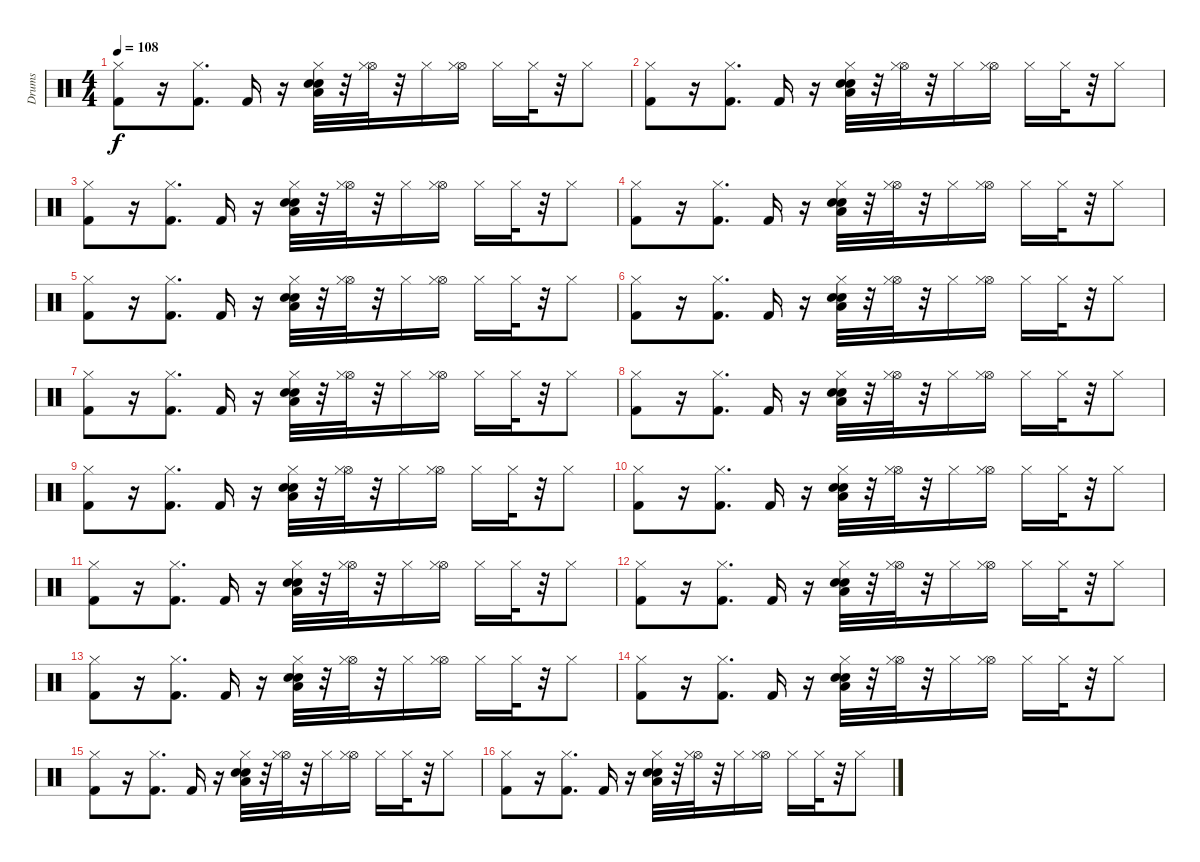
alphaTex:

\track ("Drums" "Drums") {instrument percussion}
\staff {score}
\articulation defaults
\ts (4 4)
\tempo 108
\clef neutral
\ks c
("Hi-Hat (closed)" "Kick (hit) 2").8{dy f} r.16 ("Kick (hit) 2" "Hi-Hat (closed)").8{d} "Kick (hit) 2".16 r.16 ("Low Floor Tom (hit)" "Electric Snare (hit)" "Snare (hit) 2" "Hi-Hat (closed)").32 r.32 ("Hi-Hat (open)" "Hi-Hat (closed)").32 r.32 "Hi-Hat (closed)".16 ("Hi-Hat (open)" "Hi-Hat (closed)").16 "Hi-Hat (closed)".16 "Hi-Hat (closed)".32 r.32 "Hi-Hat (closed)".8 |
("Hi-Hat (closed)" "Kick (hit) 2").8 r.16 ("Kick (hit) 2" "Hi-Hat (closed)").8{d} "Kick (hit) 2".16 r.16 ("Low Floor Tom (hit)" "Electric Snare (hit)" "Snare (hit) 2" "Hi-Hat (closed)").32 r.32 ("Hi-Hat (open)" "Hi-Hat (closed)").32 r.32 "Hi-Hat (closed)".16 ("Hi-Hat (open)" "Hi-Hat (closed)").16 "Hi-Hat (closed)".16 "Hi-Hat (closed)".32 r.32 "Hi-Hat (closed)".8 |
("Hi-Hat (closed)" "Kick (hit) 2").8 r.16 ("Kick (hit) 2" "Hi-Hat (closed)").8{d} "Kick (hit) 2".16 r.16 ("Low Floor Tom (hit)" "Electric Snare (hit)" "Snare (hit) 2" "Hi-Hat (closed)").32 r.32 ("Hi-Hat (open)" "Hi-Hat (closed)").32 r.32 "Hi-Hat (closed)".16 ("Hi-Hat (open)" "Hi-Hat (closed)").16 "Hi-Hat (closed)".16 "Hi-Hat (closed)".32 r.32 "Hi-Hat (closed)".8 |
("Hi-Hat (closed)" "Kick (hit) 2").8 r.16 ("Kick (hit) 2" "Hi-Hat (closed)").8{d} "Kick (hit) 2".16 r.16 ("Low Floor Tom (hit)" "Electric Snare (hit)" "Snare (hit) 2" "Hi-Hat (closed)").32 r.32 ("Hi-Hat (open)" "Hi-Hat (closed)").32 r.32 "Hi-Hat (closed)".16 ("Hi-Hat (open)" "Hi-Hat (closed)").16 "Hi-Hat (closed)".16 "Hi-Hat (closed)".32 r.32 "Hi-Hat (closed)".8 |
("Hi-Hat (closed)" "Kick (hit) 2").8 r.16 ("Kick (hit) 2" "Hi-Hat (closed)").8{d} "Kick (hit) 2".16 r.16 ("Low Floor Tom (hit)" "Electric Snare (hit)" "Snare (hit) 2" "Hi-Hat (closed)").32 r.32 ("Hi-Hat (open)" "Hi-Hat (closed)").32 r.32 "Hi-Hat (closed)".16 ("Hi-Hat (open)" "Hi-Hat (closed)").16 "Hi-Hat (closed)".16 "Hi-Hat (closed)".32 r.32 "Hi-Hat (closed)".8 |
("Hi-Hat (closed)" "Kick (hit) 2").8 r.16 ("Kick (hit) 2" "Hi-Hat (closed)").8{d} "Kick (hit) 2".16 r.16 ("Low Floor Tom (hit)" "Electric Snare (hit)" "Snare (hit) 2" "Hi-Hat (closed)").32 r.32 ("Hi-Hat (open)" "Hi-Hat (closed)").32 r.32 "Hi-Hat (closed)".16 ("Hi-Hat (open)" "Hi-Hat (closed)").16 "Hi-Hat (closed)".16 "Hi-Hat (closed)".32 r.32 "Hi-Hat (closed)".8 |
("Hi-Hat (closed)" "Kick (hit) 2").8 r.16 ("Kick (hit) 2" "Hi-Hat (closed)").8{d} "Kick (hit) 2".16 r.16 ("Low Floor Tom (hit)" "Electric Snare (hit)" "Snare (hit) 2" "Hi-Hat (closed)").32 r.32 ("Hi-Hat (open)" "Hi-Hat (closed)").32 r.32 "Hi-Hat (closed)".16 ("Hi-Hat (open)" "Hi-Hat (closed)").16 "Hi-Hat (closed)".16 "Hi-Hat (closed)".32 r.32 "Hi-Hat (closed)".8 |
("Hi-Hat (closed)" "Kick (hit) 2").8 r.16 ("Kick (hit) 2" "Hi-Hat (closed)").8{d} "Kick (hit) 2".16 r.16 ("Low Floor Tom (hit)" "Electric Snare (hit)" "Snare (hit) 2" "Hi-Hat (closed)").32 r.32 ("Hi-Hat (open)" "Hi-Hat (closed)").32 r.32 "Hi-Hat (closed)".16 ("Hi-Hat (open)" "Hi-Hat (closed)").16 "Hi-Hat (closed)".16 "Hi-Hat (closed)".32 r.32 "Hi-Hat (closed)".8 |
("Hi-Hat (closed)" "Kick (hit) 2").8 r.16 ("Kick (hit) 2" "Hi-Hat (closed)").8{d} "Kick (hit) 2".16 r.16 ("Low Floor Tom (hit)" "Electric Snare (hit)" "Snare (hit) 2" "Hi-Hat (closed)").32 r.32 ("Hi-Hat (open)" "Hi-Hat (closed)").32 r.32 "Hi-Hat (closed)".16 ("Hi-Hat (open)" "Hi-Hat (closed)").16 "Hi-Hat (closed)".16 "Hi-Hat (closed)".32 r.32 "Hi-Hat (closed)".8 |
("Hi-Hat (closed)" "Kick (hit) 2").8 r.16 ("Kick (hit) 2" "Hi-Hat (closed)").8{d} "Kick (hit) 2".16 r.16 ("Low Floor Tom (hit)" "Electric Snare (hit)" "Snare (hit) 2" "Hi-Hat (closed)").32 r.32 ("Hi-Hat (open)" "Hi-Hat (closed)").32 r.32 "Hi-Hat (closed)".16 ("Hi-Hat (open)" "Hi-Hat (closed)").16 "Hi-Hat (closed)".16 "Hi-Hat (closed)".32 r.32 "Hi-Hat (closed)".8 |
("Hi-Hat (closed)" "Kick (hit) 2").8 r.16 ("Kick (hit) 2" "Hi-Hat (closed)").8{d} "Kick (hit) 2".16 r.16 ("Low Floor Tom (hit)" "Electric Snare (hit)" "Snare (hit) 2" "Hi-Hat (closed)").32 r.32 ("Hi-Hat (open)" "Hi-Hat (closed)").32 r.32 "Hi-Hat (closed)".16 ("Hi-Hat (open)" "Hi-Hat (closed)").16 "Hi-Hat (closed)".16 "Hi-Hat (closed)".32 r.32 "Hi-Hat (closed)".8 |
("Hi-Hat (closed)" "Kick (hit) 2").8 r.16 ("Kick (hit) 2" "Hi-Hat (closed)").8{d} "Kick (hit) 2".16 r.16 ("Low Floor Tom (hit)" "Electric Snare (hit)" "Snare (hit) 2" "Hi-Hat (closed)").32 r.32 ("Hi-Hat (open)" "Hi-Hat (closed)").32 r.32 "Hi-Hat (closed)".16 ("Hi-Hat (open)" "Hi-Hat (closed)").16 "Hi-Hat (closed)".16 "Hi-Hat (closed)".32 r.32 "Hi-Hat (closed)".8 |
("Hi-Hat (closed)" "Kick (hit) 2").8 r.16 ("Kick (hit) 2" "Hi-Hat (closed)").8{d} "Kick (hit) 2".16 r.16 ("Low Floor Tom (hit)" "Electric Snare (hit)" "Snare (hit) 2" "Hi-Hat (closed)").32 r.32 ("Hi-Hat (open)" "Hi-Hat (closed)").32 r.32 "Hi-Hat (closed)".16 ("Hi-Hat (open)" "Hi-Hat (closed)").16 "Hi-Hat (closed)".16 "Hi-Hat (closed)".32 r.32 "Hi-Hat (closed)".8 |
("Hi-Hat (closed)" "Kick (hit) 2").8 r.16 ("Kick (hit) 2" "Hi-Hat (closed)").8{d} "Kick (hit) 2".16 r.16 ("Low Floor Tom (hit)" "Electric Snare (hit)" "Snare (hit) 2" "Hi-Hat (closed)").32 r.32 ("Hi-Hat (open)" "Hi-Hat (closed)").32 r.32 "Hi-Hat (closed)".16 ("Hi-Hat (open)" "Hi-Hat (closed)").16 "Hi-Hat (closed)".16 "Hi-Hat (closed)".32 r.32 "Hi-Hat (closed)".8 |
("Hi-Hat (closed)" "Kick (hit) 2").8 r.16 ("Kick (hit) 2" "Hi-Hat (closed)").8{d} "Kick (hit) 2".16 r.16 ("Low Floor Tom (hit)" "Electric Snare (hit)" "Snare (hit) 2" "Hi-Hat (closed)").32 r.32 ("Hi-Hat (open)" "Hi-Hat (closed)").32 r.32 "Hi-Hat (closed)".16 ("Hi-Hat (open)" "Hi-Hat (closed)").16 "Hi-Hat (closed)".16 "Hi-Hat (closed)".32 r.32 "Hi-Hat (closed)".8 |
("Hi-Hat (closed)" "Kick (hit) 2").8 r.16 ("Kick (hit) 2" "Hi-Hat (closed)").8{d} "Kick (hit) 2".16 r.16 ("Low Floor Tom (hit)" "Electric Snare (hit)" "Snare (hit) 2" "Hi-Hat (closed)").32 r.32 ("Hi-Hat (open)" "Hi-Hat (closed)").32 r.32 "Hi-Hat (closed)".16 ("Hi-Hat (open)" "Hi-Hat (closed)").16 "Hi-Hat (closed)".16 "Hi-Hat (closed)".32 r.32 "Hi-Hat (closed)".8
